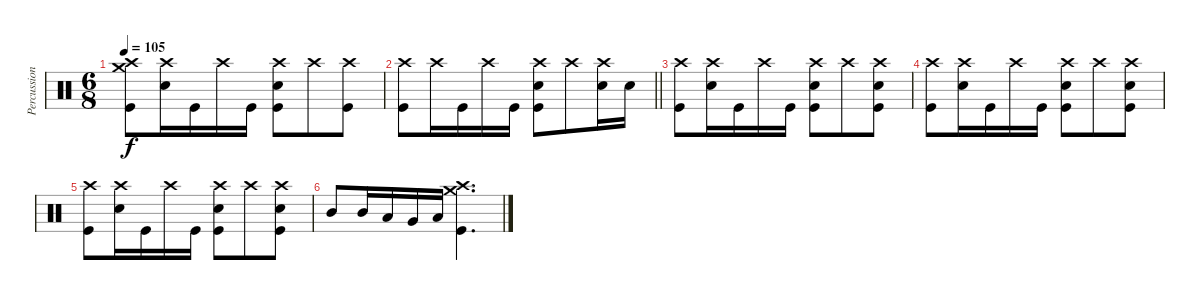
\track ("Percussion" "Percussion") {instrument percussion}
\staff {score}
\articulation defaults
\ts (6 8)
\tempo 105
\clef neutral
\ks c
("Crash medium (hit)" "Crash high (hit)" "Kick (hit)").8{dy f} ("Crash high (hit)" "Electric Snare (hit)").16 "Kick (hit)".16 "Crash high (hit)".16 "Kick (hit)".16 ("Crash high (hit)" "Electric Snare (hit)" "Kick (hit)").8 "Crash high (hit)".8 ("Crash high (hit)" "Kick (hit)").8 |
\barLineRight lightlight
("Crash high (hit)" "Kick (hit)").8 "Crash high (hit)".16 "Kick (hit)".16 "Crash high (hit)".16 "Kick (hit)".16 ("Crash high (hit)" "Electric Snare (hit)" "Kick (hit)").8 "Crash high (hit)".8 ("Crash high (hit)" "Electric Snare (hit)").16 "Electric Snare (hit)".16 |
("Crash high (hit)" "Kick (hit)").8 ("Crash high (hit)" "Electric Snare (hit)").16 "Kick (hit)".16 "Crash high (hit)".16 "Kick (hit)".16 ("Crash high (hit)" "Electric Snare (hit)" "Kick (hit)").8 "Crash high (hit)".8 ("Crash high (hit)" "Electric Snare (hit)" "Kick (hit)").8 |
("Crash high (hit)" "Kick (hit)").8 ("Crash high (hit)" "Electric Snare (hit)").16 "Kick (hit)".16 "Crash high (hit)".16 "Kick (hit)".16 ("Crash high (hit)" "Electric Snare (hit)" "Kick (hit)").8 "Crash high (hit)".8 ("Crash high (hit)" "Electric Snare (hit)" "Kick (hit)").8 |
("Crash high (hit)" "Kick (hit)").8 ("Crash high (hit)" "Electric Snare (hit)").16 "Kick (hit)".16 "Crash high (hit)".16 "Kick (hit)".16 ("Crash high (hit)" "Electric Snare (hit)" "Kick (hit)").8 "Crash high (hit)".8 ("Crash high (hit)" "Electric Snare (hit)" "Kick (hit)").8 |
"Mid Tom (hit)".8 "Mid Tom (hit)".16 "Low Tom (hit)".16 "Very Low Tom (hit)".16 "Low Floor Tom (hit)".16 ("Crash medium (hit)" "Crash high (hit)" "Kick (hit)").4{d}
